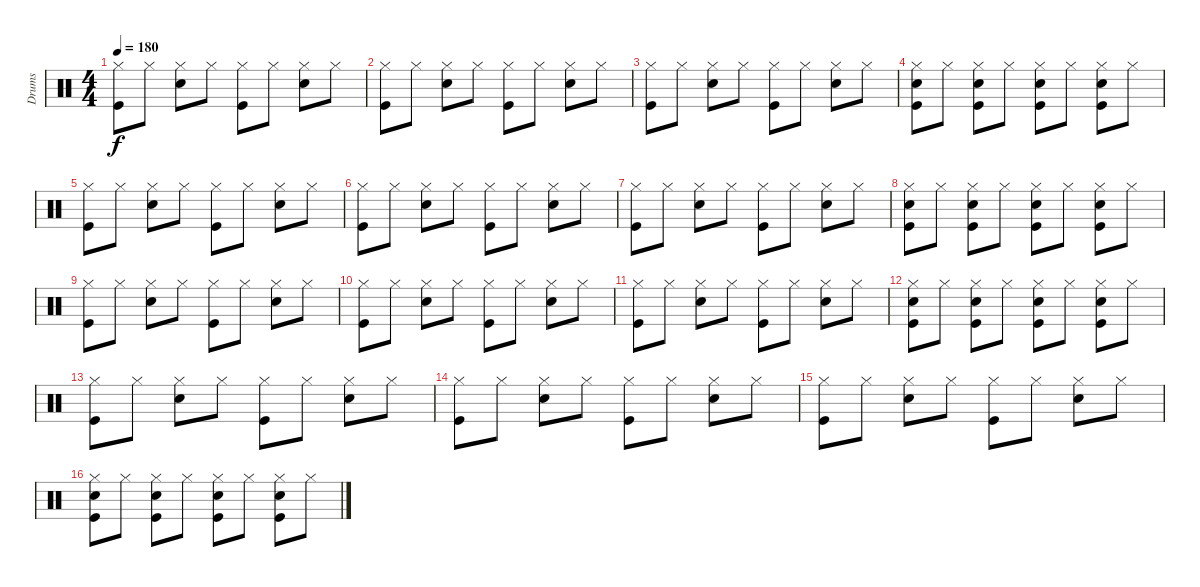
\track ("Drums" "Drums") {instrument percussion}
\staff {score}
\articulation defaults
\ts (4 4)
\tempo 180
\clef neutral
\ks c
("Hi-Hat (closed)" "Kick (hit)").8{dy f} "Hi-Hat (closed)".8 ("Hi-Hat (closed)" "Snare (hit) 2").8 "Hi-Hat (closed)".8 ("Hi-Hat (closed)" "Kick (hit)").8 "Hi-Hat (closed)".8 ("Hi-Hat (closed)" "Snare (hit) 2").8 "Hi-Hat (closed)".8 |
("Hi-Hat (closed)" "Kick (hit)").8 "Hi-Hat (closed)".8 ("Hi-Hat (closed)" "Snare (hit) 2").8 "Hi-Hat (closed)".8 ("Hi-Hat (closed)" "Kick (hit)").8 "Hi-Hat (closed)".8 ("Hi-Hat (closed)" "Snare (hit) 2").8 "Hi-Hat (closed)".8 |
("Hi-Hat (closed)" "Kick (hit)").8 "Hi-Hat (closed)".8 ("Hi-Hat (closed)" "Snare (hit) 2").8 "Hi-Hat (closed)".8 ("Hi-Hat (closed)" "Kick (hit)").8 "Hi-Hat (closed)".8 ("Hi-Hat (closed)" "Snare (hit) 2").8 "Hi-Hat (closed)".8 |
("Hi-Hat (closed)" "Kick (hit)" "Snare (hit) 2").8 "Hi-Hat (closed)".8 ("Hi-Hat (closed)" "Kick (hit)" "Snare (hit) 2").8 "Hi-Hat (closed)".8 ("Hi-Hat (closed)" "Kick (hit)" "Snare (hit) 2").8 "Hi-Hat (closed)".8 ("Hi-Hat (closed)" "Kick (hit)" "Snare (hit) 2").8 "Hi-Hat (closed)".8 |
("Hi-Hat (closed)" "Kick (hit)").8 "Hi-Hat (closed)".8 ("Hi-Hat (closed)" "Snare (hit) 2").8 "Hi-Hat (closed)".8 ("Hi-Hat (closed)" "Kick (hit)").8 "Hi-Hat (closed)".8 ("Hi-Hat (closed)" "Snare (hit) 2").8 "Hi-Hat (closed)".8 |
("Hi-Hat (closed)" "Kick (hit)").8 "Hi-Hat (closed)".8 ("Hi-Hat (closed)" "Snare (hit) 2").8 "Hi-Hat (closed)".8 ("Hi-Hat (closed)" "Kick (hit)").8 "Hi-Hat (closed)".8 ("Hi-Hat (closed)" "Snare (hit) 2").8 "Hi-Hat (closed)".8 |
("Hi-Hat (closed)" "Kick (hit)").8 "Hi-Hat (closed)".8 ("Hi-Hat (closed)" "Snare (hit) 2").8 "Hi-Hat (closed)".8 ("Hi-Hat (closed)" "Kick (hit)").8 "Hi-Hat (closed)".8 ("Hi-Hat (closed)" "Snare (hit) 2").8 "Hi-Hat (closed)".8 |
("Hi-Hat (closed)" "Kick (hit)" "Snare (hit) 2").8 "Hi-Hat (closed)".8 ("Hi-Hat (closed)" "Kick (hit)" "Snare (hit) 2").8 "Hi-Hat (closed)".8 ("Hi-Hat (closed)" "Kick (hit)" "Snare (hit) 2").8 "Hi-Hat (closed)".8 ("Hi-Hat (closed)" "Kick (hit)" "Snare (hit) 2").8 "Hi-Hat (closed)".8 |
("Hi-Hat (closed)" "Kick (hit)").8 "Hi-Hat (closed)".8 ("Hi-Hat (closed)" "Snare (hit) 2").8 "Hi-Hat (closed)".8 ("Hi-Hat (closed)" "Kick (hit)").8 "Hi-Hat (closed)".8 ("Hi-Hat (closed)" "Snare (hit) 2").8 "Hi-Hat (closed)".8 |
("Hi-Hat (closed)" "Kick (hit)").8 "Hi-Hat (closed)".8 ("Hi-Hat (closed)" "Snare (hit) 2").8 "Hi-Hat (closed)".8 ("Hi-Hat (closed)" "Kick (hit)").8 "Hi-Hat (closed)".8 ("Hi-Hat (closed)" "Snare (hit) 2").8 "Hi-Hat (closed)".8 |
("Hi-Hat (closed)" "Kick (hit)").8 "Hi-Hat (closed)".8 ("Hi-Hat (closed)" "Snare (hit) 2").8 "Hi-Hat (closed)".8 ("Hi-Hat (closed)" "Kick (hit)").8 "Hi-Hat (closed)".8 ("Hi-Hat (closed)" "Snare (hit) 2").8 "Hi-Hat (closed)".8 |
("Hi-Hat (closed)" "Kick (hit)" "Snare (hit) 2").8 "Hi-Hat (closed)".8 ("Hi-Hat (closed)" "Kick (hit)" "Snare (hit) 2").8 "Hi-Hat (closed)".8 ("Hi-Hat (closed)" "Kick (hit)" "Snare (hit) 2").8 "Hi-Hat (closed)".8 ("Hi-Hat (closed)" "Kick (hit)" "Snare (hit) 2").8 "Hi-Hat (closed)".8 |
("Hi-Hat (closed)" "Kick (hit)").8 "Hi-Hat (closed)".8 ("Hi-Hat (closed)" "Snare (hit) 2").8 "Hi-Hat (closed)".8 ("Hi-Hat (closed)" "Kick (hit)").8 "Hi-Hat (closed)".8 ("Hi-Hat (closed)" "Snare (hit) 2").8 "Hi-Hat (closed)".8 |
("Hi-Hat (closed)" "Kick (hit)").8 "Hi-Hat (closed)".8 ("Hi-Hat (closed)" "Snare (hit) 2").8 "Hi-Hat (closed)".8 ("Hi-Hat (closed)" "Kick (hit)").8 "Hi-Hat (closed)".8 ("Hi-Hat (closed)" "Snare (hit) 2").8 "Hi-Hat (closed)".8 |
("Hi-Hat (closed)" "Kick (hit)").8 "Hi-Hat (closed)".8 ("Hi-Hat (closed)" "Snare (hit) 2").8 "Hi-Hat (closed)".8 ("Hi-Hat (closed)" "Kick (hit)").8 "Hi-Hat (closed)".8 ("Hi-Hat (closed)" "Snare (hit) 2").8 "Hi-Hat (closed)".8 |
("Hi-Hat (closed)" "Kick (hit)" "Snare (hit) 2").8 "Hi-Hat (closed)".8 ("Hi-Hat (closed)" "Kick (hit)" "Snare (hit) 2").8 "Hi-Hat (closed)".8 ("Hi-Hat (closed)" "Kick (hit)" "Snare (hit) 2").8 "Hi-Hat (closed)".8 ("Hi-Hat (closed)" "Kick (hit)" "Snare (hit) 2").8 "Hi-Hat (closed)".8
